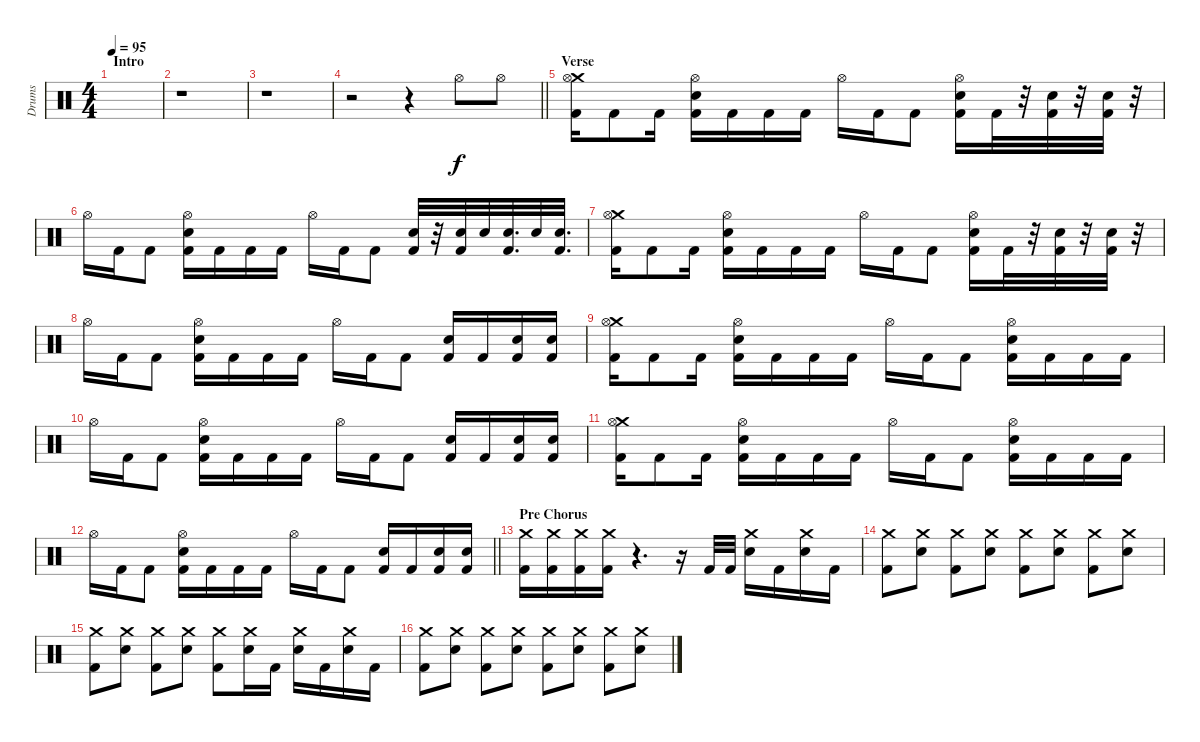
\track ("Drums" "Drums") {instrument percussion}
\staff {score}
\articulation defaults
\ts (4 4)
\section ("" "Intro")
\tempo 95
\clef neutral
\ks c
|
r.1 |
r.1 |
\barLineRight lightlight
r.2 r.4 "Hi-Hat (open)".8 "Hi-Hat (open)".8 |
\section ("" "Verse")
("Crash medium (hit)" "Kick (hit) 2" "Hi-Hat (open)").16 "Kick (hit) 2".8 "Kick (hit) 2".16 ("Hi-Hat (open)" "Kick (hit) 2" "Snare (hit) 2").16 "Kick (hit) 2".16 "Kick (hit) 2".16 "Kick (hit) 2".16 "Hi-Hat (open)".16 "Kick (hit) 2".16 "Kick (hit) 2".8 ("Hi-Hat (open)" "Kick (hit) 2" "Snare (hit) 2").16 "Kick (hit) 2".32 r.32 ("Kick (hit) 2" "Snare (hit) 2").32 r.32 ("Kick (hit) 2" "Snare (hit) 2").32 r.32 |
"Hi-Hat (open)".16 "Kick (hit) 2".16 "Kick (hit) 2".8 ("Hi-Hat (open)" "Kick (hit) 2" "Snare (hit) 2").16 "Kick (hit) 2".16 "Kick (hit) 2".16 "Kick (hit) 2".16 "Hi-Hat (open)".16 "Kick (hit) 2".16 "Kick (hit) 2".8 ("Kick (hit) 2" "Snare (hit) 2").32 r.32 ("Kick (hit) 2" "Snare (hit) 2").32 "Snare (hit) 2".32 ("Kick (hit) 2" "Snare (hit) 2").32{d} "Snare (hit) 2".32 ("Kick (hit) 2" "Snare (hit) 2").32{d} |
("Crash medium (hit)" "Kick (hit) 2" "Hi-Hat (open)").16 "Kick (hit) 2".8 "Kick (hit) 2".16 ("Hi-Hat (open)" "Kick (hit) 2" "Snare (hit) 2").16 "Kick (hit) 2".16 "Kick (hit) 2".16 "Kick (hit) 2".16 "Hi-Hat (open)".16 "Kick (hit) 2".16 "Kick (hit) 2".8 ("Hi-Hat (open)" "Kick (hit) 2" "Snare (hit) 2").16 "Kick (hit) 2".32 r.32 ("Kick (hit) 2" "Snare (hit) 2").32 r.32 ("Kick (hit) 2" "Snare (hit) 2").32 r.32 |
"Hi-Hat (open)".16 "Kick (hit) 2".16 "Kick (hit) 2".8 ("Hi-Hat (open)" "Kick (hit) 2" "Snare (hit) 2").16 "Kick (hit) 2".16 "Kick (hit) 2".16 "Kick (hit) 2".16 "Hi-Hat (open)".16 "Kick (hit) 2".16 "Kick (hit) 2".8 ("Snare (hit) 2" "Kick (hit) 2").16 "Kick (hit) 2".16 ("Snare (hit) 2" "Kick (hit) 2").16 ("Snare (hit) 2" "Kick (hit) 2").16 |
("Crash medium (hit)" "Kick (hit) 2" "Hi-Hat (open)").16 "Kick (hit) 2".8 "Kick (hit) 2".16 ("Hi-Hat (open)" "Kick (hit) 2" "Snare (hit) 2").16 "Kick (hit) 2".16 "Kick (hit) 2".16 "Kick (hit) 2".16 "Hi-Hat (open)".16 "Kick (hit) 2".16 "Kick (hit) 2".8 ("Hi-Hat (open)" "Kick (hit) 2" "Snare (hit) 2").16 "Kick (hit) 2".16 "Kick (hit) 2".16 "Kick (hit) 2".16 |
"Hi-Hat (open)".16 "Kick (hit) 2".16 "Kick (hit) 2".8 ("Hi-Hat (open)" "Kick (hit) 2" "Snare (hit) 2").16 "Kick (hit) 2".16 "Kick (hit) 2".16 "Kick (hit) 2".16 "Hi-Hat (open)".16 "Kick (hit) 2".16 "Kick (hit) 2".8 ("Snare (hit) 2" "Kick (hit) 2").16 "Kick (hit) 2".16 ("Snare (hit) 2" "Kick (hit) 2").16 ("Snare (hit) 2" "Kick (hit) 2").16 |
("Crash medium (hit)" "Kick (hit) 2" "Hi-Hat (open)").16 "Kick (hit) 2".8 "Kick (hit) 2".16 ("Hi-Hat (open)" "Kick (hit) 2" "Snare (hit) 2").16 "Kick (hit) 2".16 "Kick (hit) 2".16 "Kick (hit) 2".16 "Hi-Hat (open)".16 "Kick (hit) 2".16 "Kick (hit) 2".8 ("Hi-Hat (open)" "Kick (hit) 2" "Snare (hit) 2").16 "Kick (hit) 2".16 "Kick (hit) 2".16 "Kick (hit) 2".16 |
\barLineRight lightlight "Hi-Hat (open)".16 "Kick (hit) 2".16 "Kick (hit) 2".8
("Hi-Hat (open)" "Kick (hit) 2" "Snare (hit) 2").16 "Kick (hit) 2".16 "Kick (hit) 2".16 "Kick (hit) 2".16 "Hi-Hat (open)".16 "Kick (hit) 2".16 "Kick (hit) 2".8 ("Snare (hit) 2" "Kick (hit) 2").16 "Kick (hit) 2".16 ("Snare (hit) 2" "Kick (hit) 2").16 ("Snare (hit) 2" "Kick (hit) 2").16 |
\section ("" "Pre Chorus")
("Crash medium (hit)" "Kick (hit) 2").16 ("Crash medium (hit)" "Kick (hit) 2").16 ("Crash medium (hit)" "Kick (hit) 2").16 ("Crash medium (hit)" "Kick (hit) 2").16 r.4{d} r.16 "Kick (hit) 2".32 "Kick (hit) 2".32 ("Crash medium (hit)" "Electric Snare (hit)").16 "Kick (hit) 2".16 ("Crash medium (hit)" "Electric Snare (hit)").16 "Kick (hit) 2".16 |
("Crash medium (hit)" "Kick (hit) 2").8 ("Crash medium (hit)" "Electric Snare (hit)").8 ("Crash medium (hit)" "Kick (hit) 2").8 ("Crash medium (hit)" "Electric Snare (hit)").8 ("Crash medium (hit)" "Kick (hit) 2").8 ("Crash medium (hit)" "Electric Snare (hit)").8 ("Crash medium (hit)" "Kick (hit) 2").8 ("Crash medium (hit)" "Electric Snare (hit)").8 |
("Crash medium (hit)" "Kick (hit) 2").8 ("Crash medium (hit)" "Electric Snare (hit)").8 ("Crash medium (hit)" "Kick (hit) 2").8 ("Crash medium (hit)" "Electric Snare (hit)").8 ("Crash medium (hit)" "Kick (hit) 2").8 ("Crash medium (hit)" "Electric Snare (hit)").16 "Kick (hit) 2".16 ("Crash medium (hit)" "Electric Snare (hit)").16 "Kick (hit) 2".16 ("Crash medium (hit)" "Electric Snare (hit)").16 "Kick (hit) 2".16 |
("Crash medium (hit)" "Kick (hit) 2").8 ("Crash medium (hit)" "Electric Snare (hit)").8 ("Crash medium (hit)" "Kick (hit) 2").8 ("Crash medium (hit)" "Electric Snare (hit)").8 ("Crash medium (hit)" "Kick (hit) 2").8 ("Crash medium (hit)" "Electric Snare (hit)").8 ("Crash medium (hit)" "Kick (hit) 2").8 ("Crash medium (hit)" "Electric Snare (hit)").8
